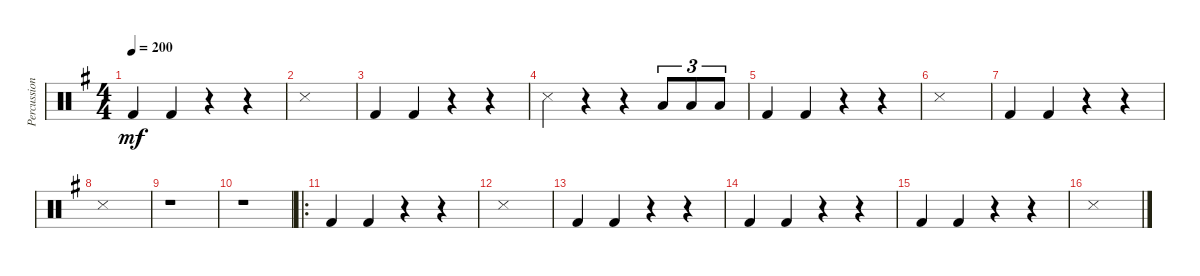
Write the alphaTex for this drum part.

\track ("Percussion" "Percussion") {instrument percussion}
\staff {score}
\articulation defaults
\ts (4 4)
\tempo 200
\clef neutral
\ks g "Kick (hit) 2".4{dy mf} "Kick (hit) 2".4
r.4 r.4 |
"Snare (side stick) 3".1 |
"Kick (hit) 2".4 "Kick (hit) 2".4 r.4 r.4 |
"Snare (side stick) 3".4 r.4 r.4 "Low Tom (hit)".8{tu (3 2)} "Low Tom (hit)".8{tu (3 2)} "Low Tom (hit)".8{tu (3 2)} |
"Kick (hit) 2".4 "Kick (hit) 2".4 r.4 r.4 |
"Snare (side stick) 3".1 |
"Kick (hit) 2".4 "Kick (hit) 2".4 r.4 r.4 |
"Snare (side stick) 3".1 |
r.1 |
r.1 |
\ro
\section ("" "")
"Kick (hit) 2".4 "Kick (hit) 2".4 r.4 r.4 |
"Snare (side stick) 3".1 |
"Kick (hit) 2".4 "Kick (hit) 2".4 r.4 r.4 |
"Kick (hit) 2".4 "Kick (hit) 2".4 r.4 r.4 |
"Kick (hit) 2".4 "Kick (hit) 2".4 r.4 r.4 |
"Snare (side stick) 3".1
